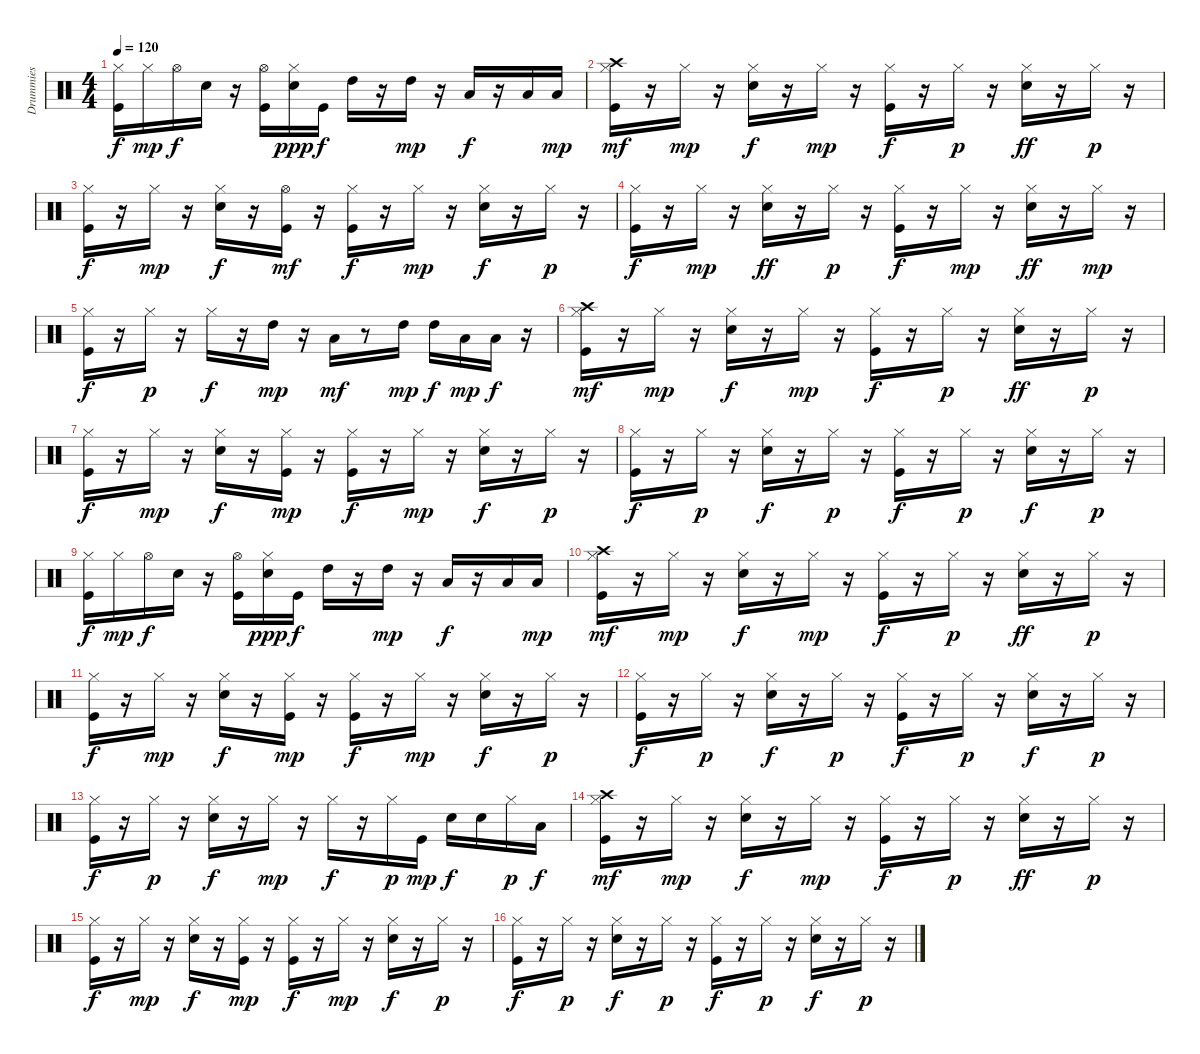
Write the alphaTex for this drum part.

\track ("Drummies" "Drummies") {instrument percussion}
\staff {score}
\articulation defaults
\ts (4 4)
\tempo 120
\clef neutral
\ks c
("Kick (hit)" "Hi-Hat (closed)").16{dy f} "Hi-Hat (closed)".16{dy mp} "Hi-Hat (open)".16{dy f} "Snare (hit) 2".16 r.16 ("Kick (hit)" "Hi-Hat (open)").16 ("Snare (hit) 2" "Hi-Hat (closed)").16{dy ppp} "Kick (hit)".16{dy f} "High Tom (hit)".16 r.16 "High Tom (hit)".16{dy mp} r.16 "Low Tom (hit)".16{dy f} r.16 "Low Floor Tom (hit)".16 "Low Floor Tom (hit)".16{dy mp} |
("Kick (hit)" "Hi-Hat (closed)" "Crash high (hit)").16{dy mf} r.16 "Hi-Hat (closed)".16{dy mp} r.16 ("Snare (hit) 2" "Hi-Hat (closed)").16{dy f} r.16 "Hi-Hat (closed)".16{dy mp} r.16 ("Kick (hit)" "Hi-Hat (closed)").16{dy f} r.16 "Hi-Hat (closed)".16{dy p} r.16 ("Snare (hit) 2" "Hi-Hat (closed)").16{dy ff} r.16 "Hi-Hat (closed)".16{dy p} r.16 |
("Kick (hit)" "Hi-Hat (closed)").16{dy f} r.16 "Hi-Hat (closed)".16{dy mp} r.16 ("Snare (hit) 2" "Hi-Hat (closed)").16{dy f} r.16 ("Kick (hit)" "Hi-Hat (open)").16{dy mf} r.16 ("Kick (hit)" "Hi-Hat (closed)").16{dy f} r.16 "Hi-Hat (closed)".16{dy mp} r.16 ("Snare (hit) 2" "Hi-Hat (closed)").16{dy f} r.16 "Hi-Hat (closed)".16{dy p} r.16 |
("Kick (hit)" "Hi-Hat (closed)").16{dy f} r.16 "Hi-Hat (closed)".16{dy mp} r.16 ("Snare (hit) 2" "Hi-Hat (closed)").16{dy ff} r.16 "Hi-Hat (closed)".16{dy p} r.16 ("Kick (hit)" "Hi-Hat (closed)").16{dy f} r.16 "Hi-Hat (closed)".16{dy mp} r.16 ("Snare (hit) 2" "Hi-Hat (closed)").16{dy ff} r.16 "Hi-Hat (closed)".16{dy mp} r.16 |
("Kick (hit)" "Hi-Hat (closed)").16{dy f} r.16 "Hi-Hat (closed)".16{dy p} r.16 "Hi-Hat (closed)".16{dy f} r.16 "High Tom (hit)".16{dy mp} r.16 "Low Tom (hit)".16{dy mf} r.8 "High Tom (hit)".16{dy mp} "High Tom (hit)".16{dy f} "Low Tom (hit)".16{dy mp} "Low Tom (hit)".16{dy f} r.16 |
("Kick (hit)" "Hi-Hat (closed)" "Crash high (hit)").16{dy mf} r.16 "Hi-Hat (closed)".16{dy mp} r.16 ("Snare (hit) 2" "Hi-Hat (closed)").16{dy f} r.16 "Hi-Hat (closed)".16{dy mp} r.16 ("Kick (hit)" "Hi-Hat (closed)").16{dy f} r.16 "Hi-Hat (closed)".16{dy p} r.16 ("Snare (hit) 2" "Hi-Hat (closed)").16{dy ff} r.16 "Hi-Hat (closed)".16{dy p} r.16 |
("Kick (hit)" "Hi-Hat (closed)").16{dy f} r.16 "Hi-Hat (closed)".16{dy mp} r.16 ("Snare (hit) 2" "Hi-Hat (closed)").16{dy f} r.16 ("Kick (hit)" "Hi-Hat (closed)").16{dy mp} r.16 ("Kick (hit)" "Hi-Hat (closed)").16{dy f} r.16 "Hi-Hat (closed)".16{dy mp} r.16 ("Snare (hit) 2" "Hi-Hat (closed)").16{dy f} r.16 "Hi-Hat (closed)".16{dy p} r.16 |
("Kick (hit)" "Hi-Hat (closed)").16{dy f} r.16 "Hi-Hat (closed)".16{dy p} r.16 ("Snare (hit) 2" "Hi-Hat (closed)").16{dy f} r.16 "Hi-Hat (closed)".16{dy p} r.16 ("Kick (hit)" "Hi-Hat (closed)").16{dy f} r.16 "Hi-Hat (closed)".16{dy p} r.16 ("Snare (hit) 2" "Hi-Hat (closed)").16{dy f} r.16 "Hi-Hat (closed)".16{dy p} r.16 |
("Kick (hit)" "Hi-Hat (closed)").16{dy f} "Hi-Hat (closed)".16{dy mp} "Hi-Hat (open)".16{dy f} "Snare (hit) 2".16 r.16 ("Kick (hit)" "Hi-Hat (open)").16 ("Snare (hit) 2" "Hi-Hat (closed)").16{dy ppp} "Kick (hit)".16{dy f} "High Tom (hit)".16 r.16 "High Tom (hit)".16{dy mp} r.16 "Low Tom (hit)".16{dy f} r.16 "Low Floor Tom (hit)".16 "Low Floor Tom (hit)".16{dy mp} |
("Kick (hit)" "Hi-Hat (closed)" "Crash high (hit)").16{dy mf} r.16 "Hi-Hat (closed)".16{dy mp} r.16 ("Snare (hit) 2" "Hi-Hat (closed)").16{dy f} r.16 "Hi-Hat (closed)".16{dy mp} r.16 ("Kick (hit)" "Hi-Hat (closed)").16{dy f} r.16 "Hi-Hat (closed)".16{dy p} r.16 ("Snare (hit) 2" "Hi-Hat (closed)").16{dy ff} r.16 "Hi-Hat (closed)".16{dy p} r.16 |
("Kick (hit)" "Hi-Hat (closed)").16{dy f} r.16 "Hi-Hat (closed)".16{dy mp} r.16 ("Snare (hit) 2" "Hi-Hat (closed)").16{dy f} r.16 ("Kick (hit)" "Hi-Hat (closed)").16{dy mp} r.16 ("Kick (hit)" "Hi-Hat (closed)").16{dy f} r.16 "Hi-Hat (closed)".16{dy mp} r.16 ("Snare (hit) 2" "Hi-Hat (closed)").16{dy f} r.16 "Hi-Hat (closed)".16{dy p} r.16 |
("Kick (hit)" "Hi-Hat (closed)").16{dy f} r.16 "Hi-Hat (closed)".16{dy p} r.16 ("Snare (hit) 2" "Hi-Hat (closed)").16{dy f} r.16 "Hi-Hat (closed)".16{dy p} r.16 ("Kick (hit)" "Hi-Hat (closed)").16{dy f} r.16 "Hi-Hat (closed)".16{dy p} r.16 ("Snare (hit) 2" "Hi-Hat (closed)").16{dy f} r.16 "Hi-Hat (closed)".16{dy p} r.16 |
("Kick (hit)" "Hi-Hat (closed)").16{dy f} r.16 "Hi-Hat (closed)".16{dy p} r.16 ("Snare (hit) 2" "Hi-Hat (closed)").16{dy f} r.16 "Hi-Hat (closed)".16{dy mp} r.16 "Hi-Hat (closed)".16{dy f} r.16 "Hi-Hat (closed)".16{dy p} "Kick (hit)".16{dy mp} "Snare (hit) 2".16{dy f} "Snare (hit) 2".16 "Hi-Hat (closed)".16{dy p} "Low Tom (hit)".16{dy f} |
("Kick (hit)" "Hi-Hat (closed)" "Crash high (hit)").16{dy mf} r.16 "Hi-Hat (closed)".16{dy mp} r.16 ("Snare (hit) 2" "Hi-Hat (closed)").16{dy f} r.16 "Hi-Hat (closed)".16{dy mp} r.16 ("Kick (hit)" "Hi-Hat (closed)").16{dy f} r.16 "Hi-Hat (closed)".16{dy p} r.16 ("Snare (hit) 2" "Hi-Hat (closed)").16{dy ff} r.16 "Hi-Hat (closed)".16{dy p} r.16 |
("Kick (hit)" "Hi-Hat (closed)").16{dy f} r.16 "Hi-Hat (closed)".16{dy mp} r.16 ("Snare (hit) 2" "Hi-Hat (closed)").16{dy f} r.16 ("Kick (hit)" "Hi-Hat (closed)").16{dy mp} r.16 ("Kick (hit)" "Hi-Hat (closed)").16{dy f} r.16 "Hi-Hat (closed)".16{dy mp} r.16 ("Snare (hit) 2" "Hi-Hat (closed)").16{dy f} r.16 "Hi-Hat (closed)".16{dy p} r.16 |
("Kick (hit)" "Hi-Hat (closed)").16{dy f} r.16 "Hi-Hat (closed)".16{dy p} r.16 ("Snare (hit) 2" "Hi-Hat (closed)").16{dy f} r.16 "Hi-Hat (closed)".16{dy p} r.16 ("Kick (hit)" "Hi-Hat (closed)").16{dy f} r.16 "Hi-Hat (closed)".16{dy p} r.16 ("Snare (hit) 2" "Hi-Hat (closed)").16{dy f} r.16 "Hi-Hat (closed)".16{dy p} r.16
